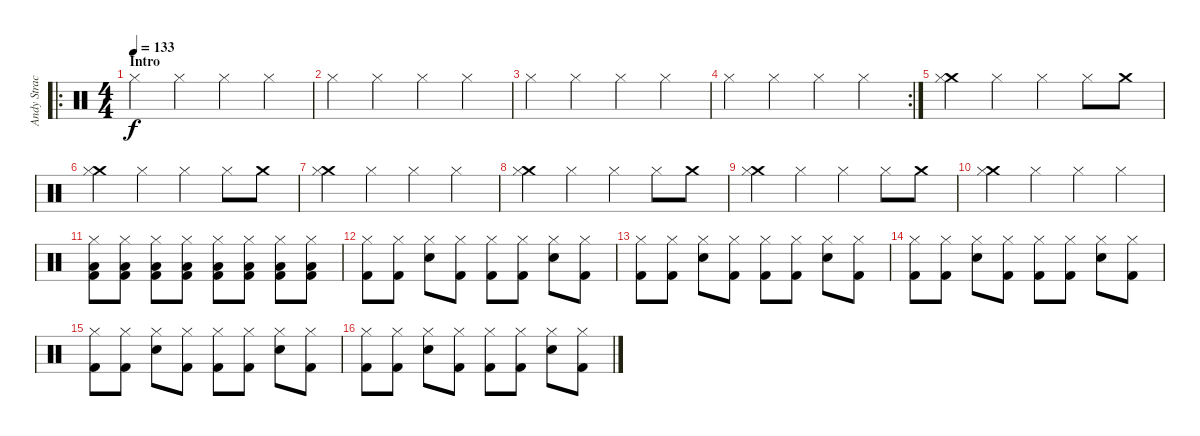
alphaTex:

\track ("Andy Strachan" "Andy Strac") {instrument percussion}
\staff {score}
\articulation defaults
\ro
\ts (4 4)
\section ("" "Intro")
\tempo 133
\clef neutral
\ks c "Hi-Hat (closed)".4{dy f} "Hi-Hat (closed)".4 "Hi-Hat (closed)".4 "Hi-Hat (closed)".4
|
"Hi-Hat (closed)".4 "Hi-Hat (closed)".4 "Hi-Hat (closed)".4 "Hi-Hat (closed)".4 |
"Hi-Hat (closed)".4 "Hi-Hat (closed)".4 "Hi-Hat (closed)".4 "Hi-Hat (closed)".4 |
\rc 2 "Hi-Hat (closed)".4 "Hi-Hat (closed)".4 "Hi-Hat (closed)".4 "Hi-Hat (closed)".4
|
("Crash medium (hit)" "Hi-Hat (closed)").4 "Hi-Hat (closed)".4 "Hi-Hat (closed)".4 "Hi-Hat (closed)".8 "Crash medium (hit)".8 |
("Crash medium (hit)" "Hi-Hat (closed)").4 "Hi-Hat (closed)".4 "Hi-Hat (closed)".4 "Hi-Hat (closed)".8 "Crash medium (hit)".8 |
("Crash medium (hit)" "Hi-Hat (closed)").4 "Hi-Hat (closed)".4 "Hi-Hat (closed)".4 "Hi-Hat (closed)".4 |
("Crash medium (hit)" "Hi-Hat (closed)").4 "Hi-Hat (closed)".4 "Hi-Hat (closed)".4 "Hi-Hat (closed)".8 "Crash medium (hit)".8 |
("Crash medium (hit)" "Hi-Hat (closed)").4 "Hi-Hat (closed)".4 "Hi-Hat (closed)".4 "Hi-Hat (closed)".8 "Crash medium (hit)".8 |
("Crash medium (hit)" "Hi-Hat (closed)").4 "Hi-Hat (closed)".4 "Hi-Hat (closed)".4 "Hi-Hat (closed)".4 |
("Hi-Hat (closed)" "Kick (hit) 2" "Low Floor Tom (hit)").8 ("Hi-Hat (closed)" "Kick (hit) 2" "Low Floor Tom (hit)").8 ("Hi-Hat (closed)" "Kick (hit) 2" "Low Floor Tom (hit)").8 ("Hi-Hat (closed)" "Kick (hit) 2" "Low Floor Tom (hit)").8 ("Hi-Hat (closed)" "Kick (hit) 2" "Low Floor Tom (hit)").8 ("Hi-Hat (closed)" "Kick (hit) 2" "Low Floor Tom (hit)").8 ("Hi-Hat (closed)" "Kick (hit) 2" "Low Floor Tom (hit)").8 ("Hi-Hat (closed)" "Kick (hit) 2" "Low Floor Tom (hit)").8 |
("Hi-Hat (closed)" "Kick (hit) 2").8 ("Hi-Hat (closed)" "Kick (hit) 2").8 ("Electric Snare (hit)" "Hi-Hat (closed)").8 ("Hi-Hat (closed)" "Kick (hit) 2").8 ("Hi-Hat (closed)" "Kick (hit) 2").8 ("Hi-Hat (closed)" "Kick (hit) 2").8 ("Electric Snare (hit)" "Hi-Hat (closed)").8 ("Hi-Hat (closed)" "Kick (hit) 2").8 |
("Hi-Hat (closed)" "Kick (hit) 2").8 ("Hi-Hat (closed)" "Kick (hit) 2").8 ("Electric Snare (hit)" "Hi-Hat (closed)").8 ("Hi-Hat (closed)" "Kick (hit) 2").8 ("Hi-Hat (closed)" "Kick (hit) 2").8 ("Hi-Hat (closed)" "Kick (hit) 2").8 ("Electric Snare (hit)" "Hi-Hat (closed)").8 ("Hi-Hat (closed)" "Kick (hit) 2").8 |
("Hi-Hat (closed)" "Kick (hit) 2").8 ("Hi-Hat (closed)" "Kick (hit) 2").8 ("Electric Snare (hit)" "Hi-Hat (closed)").8 ("Hi-Hat (closed)" "Kick (hit) 2").8 ("Hi-Hat (closed)" "Kick (hit) 2").8 ("Hi-Hat (closed)" "Kick (hit) 2").8 ("Electric Snare (hit)" "Hi-Hat (closed)").8 ("Hi-Hat (closed)" "Kick (hit) 2").8 |
("Hi-Hat (closed)" "Kick (hit) 2").8 ("Hi-Hat (closed)" "Kick (hit) 2").8 ("Electric Snare (hit)" "Hi-Hat (closed)").8 ("Hi-Hat (closed)" "Kick (hit) 2").8 ("Hi-Hat (closed)" "Kick (hit) 2").8 ("Hi-Hat (closed)" "Kick (hit) 2").8 ("Electric Snare (hit)" "Hi-Hat (closed)").8 ("Hi-Hat (closed)" "Kick (hit) 2").8 |
("Hi-Hat (closed)" "Kick (hit) 2").8 ("Hi-Hat (closed)" "Kick (hit) 2").8 ("Electric Snare (hit)" "Hi-Hat (closed)").8 ("Hi-Hat (closed)" "Kick (hit) 2").8 ("Hi-Hat (closed)" "Kick (hit) 2").8 ("Hi-Hat (closed)" "Kick (hit) 2").8 ("Electric Snare (hit)" "Hi-Hat (closed)").8 ("Hi-Hat (closed)" "Kick (hit) 2").8
